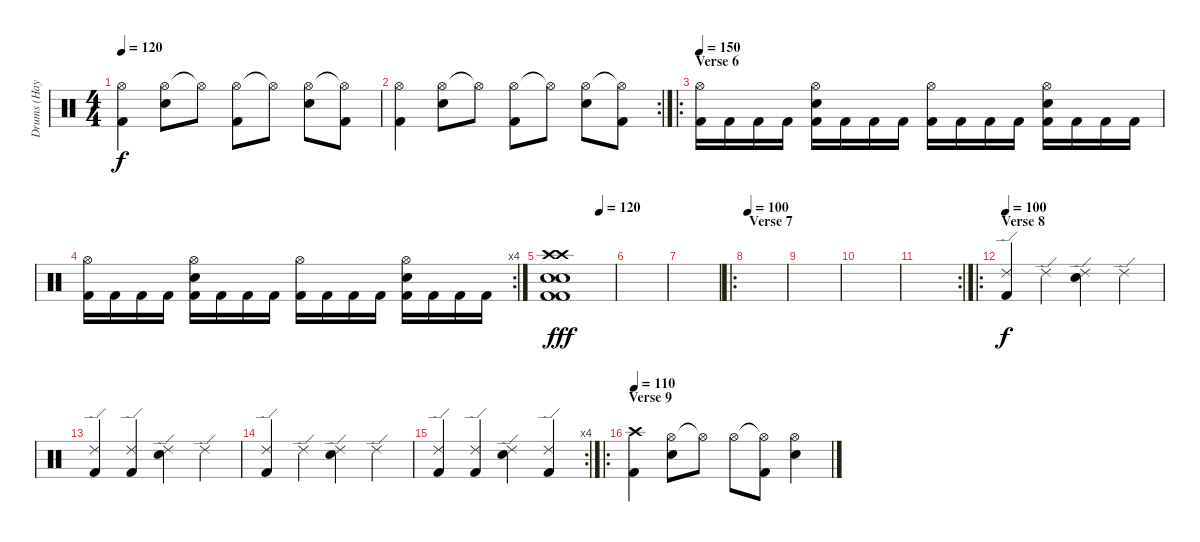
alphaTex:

\track ("Drums (Hayden)" "Drums (Hay") {instrument percussion}
\staff {score}
\articulation defaults
\ts (4 4)
\tempo 120
\clef neutral
\ks c
("Hi-Hat (open)" "Kick (hit) 2").4{dy f} ("Hi-Hat (open)" "Electric Snare (hit)").8 "Hi-Hat (open)"{t}.8 ("Hi-Hat (open)" "Kick (hit) 2").8 "Hi-Hat (open)"{t}.8 ("Hi-Hat (open)" "Electric Snare (hit)").8 ("Hi-Hat (open)"{t} "Kick (hit) 2").8 |
\rc 2
("Hi-Hat (open)" "Kick (hit) 2").4 ("Hi-Hat (open)" "Electric Snare (hit)").8 "Hi-Hat (open)"{t}.8 ("Hi-Hat (open)" "Kick (hit) 2").8 "Hi-Hat (open)"{t}.8 ("Hi-Hat (open)" "Electric Snare (hit)").8 ("Hi-Hat (open)"{t} "Kick (hit) 2").8 |
\ro
\section ("" "Verse 6")
\tempo 150
("Kick (hit) 2" "Hi-Hat (open)").16 "Kick (hit) 2".16 "Kick (hit) 2".16 "Kick (hit) 2".16 ("Kick (hit) 2" "Hi-Hat (open)" "Electric Snare (hit)").16 "Kick (hit) 2".16 "Kick (hit) 2".16 "Kick (hit) 2".16 ("Kick (hit) 2" "Hi-Hat (open)").16 "Kick (hit) 2".16 "Kick (hit) 2".16 "Kick (hit) 2".16 ("Kick (hit) 2" "Hi-Hat (open)" "Electric Snare (hit)").16 "Kick (hit) 2".16 "Kick (hit) 2".16 "Kick (hit) 2".16 |
\rc 4
("Kick (hit) 2" "Hi-Hat (open)").16 "Kick (hit) 2".16 "Kick (hit) 2".16 "Kick (hit) 2".16 ("Kick (hit) 2" "Hi-Hat (open)" "Electric Snare (hit)").16 "Kick (hit) 2".16 "Kick (hit) 2".16 "Kick (hit) 2".16 ("Kick (hit) 2" "Hi-Hat (open)").16 "Kick (hit) 2".16 "Kick (hit) 2".16 "Kick (hit) 2".16 ("Kick (hit) 2" "Hi-Hat (open)" "Electric Snare (hit)").16 "Kick (hit) 2".16 "Kick (hit) 2".16 "Kick (hit) 2".16 |
\tempo (120 0.75)
("Crash high (hit)" "Crash high (hit)" "Electric Snare (hit)" "Electric Snare (hit)" "Kick (hit) 2" "Kick (hit) 2").1{dy fff} |
|
|
\ro
\section ("" "Verse 7")
\tempo 100
|
|
|
\rc 2
|
\ro
\section ("" "Verse 8")
\tempo 100
("Ride (edge) 2" "Kick (hit) 2").4{dy f} "Ride (edge) 2".4 ("Ride (edge) 2" "Electric Snare (hit)").4 "Ride (edge) 2".4 |
("Ride (edge) 2" "Kick (hit) 2").4 ("Ride (edge) 2" "Kick (hit) 2").4 ("Ride (edge) 2" "Electric Snare (hit)").4 "Ride (edge) 2".4 |
("Ride (edge) 2" "Kick (hit) 2").4 "Ride (edge) 2".4 ("Ride (edge) 2" "Electric Snare (hit)").4 "Ride (edge) 2".4 |
\rc 4
("Ride (edge) 2" "Kick (hit) 2").4 ("Ride (edge) 2" "Kick (hit) 2").4 ("Ride (edge) 2" "Electric Snare (hit)").4 ("Ride (edge) 2" "Kick (hit) 2").4 |
\ro
\section ("" "Verse 9")
\tempo 110
("Crash high (hit)" "Kick (hit) 2").4 ("Hi-Hat (open)" "Electric Snare (hit)").8 "Hi-Hat (open)"{t}.8 "Hi-Hat (open)".8 ("Hi-Hat (open)"{t} "Kick (hit) 2").8 ("Hi-Hat (open)" "Electric Snare (hit)").4
